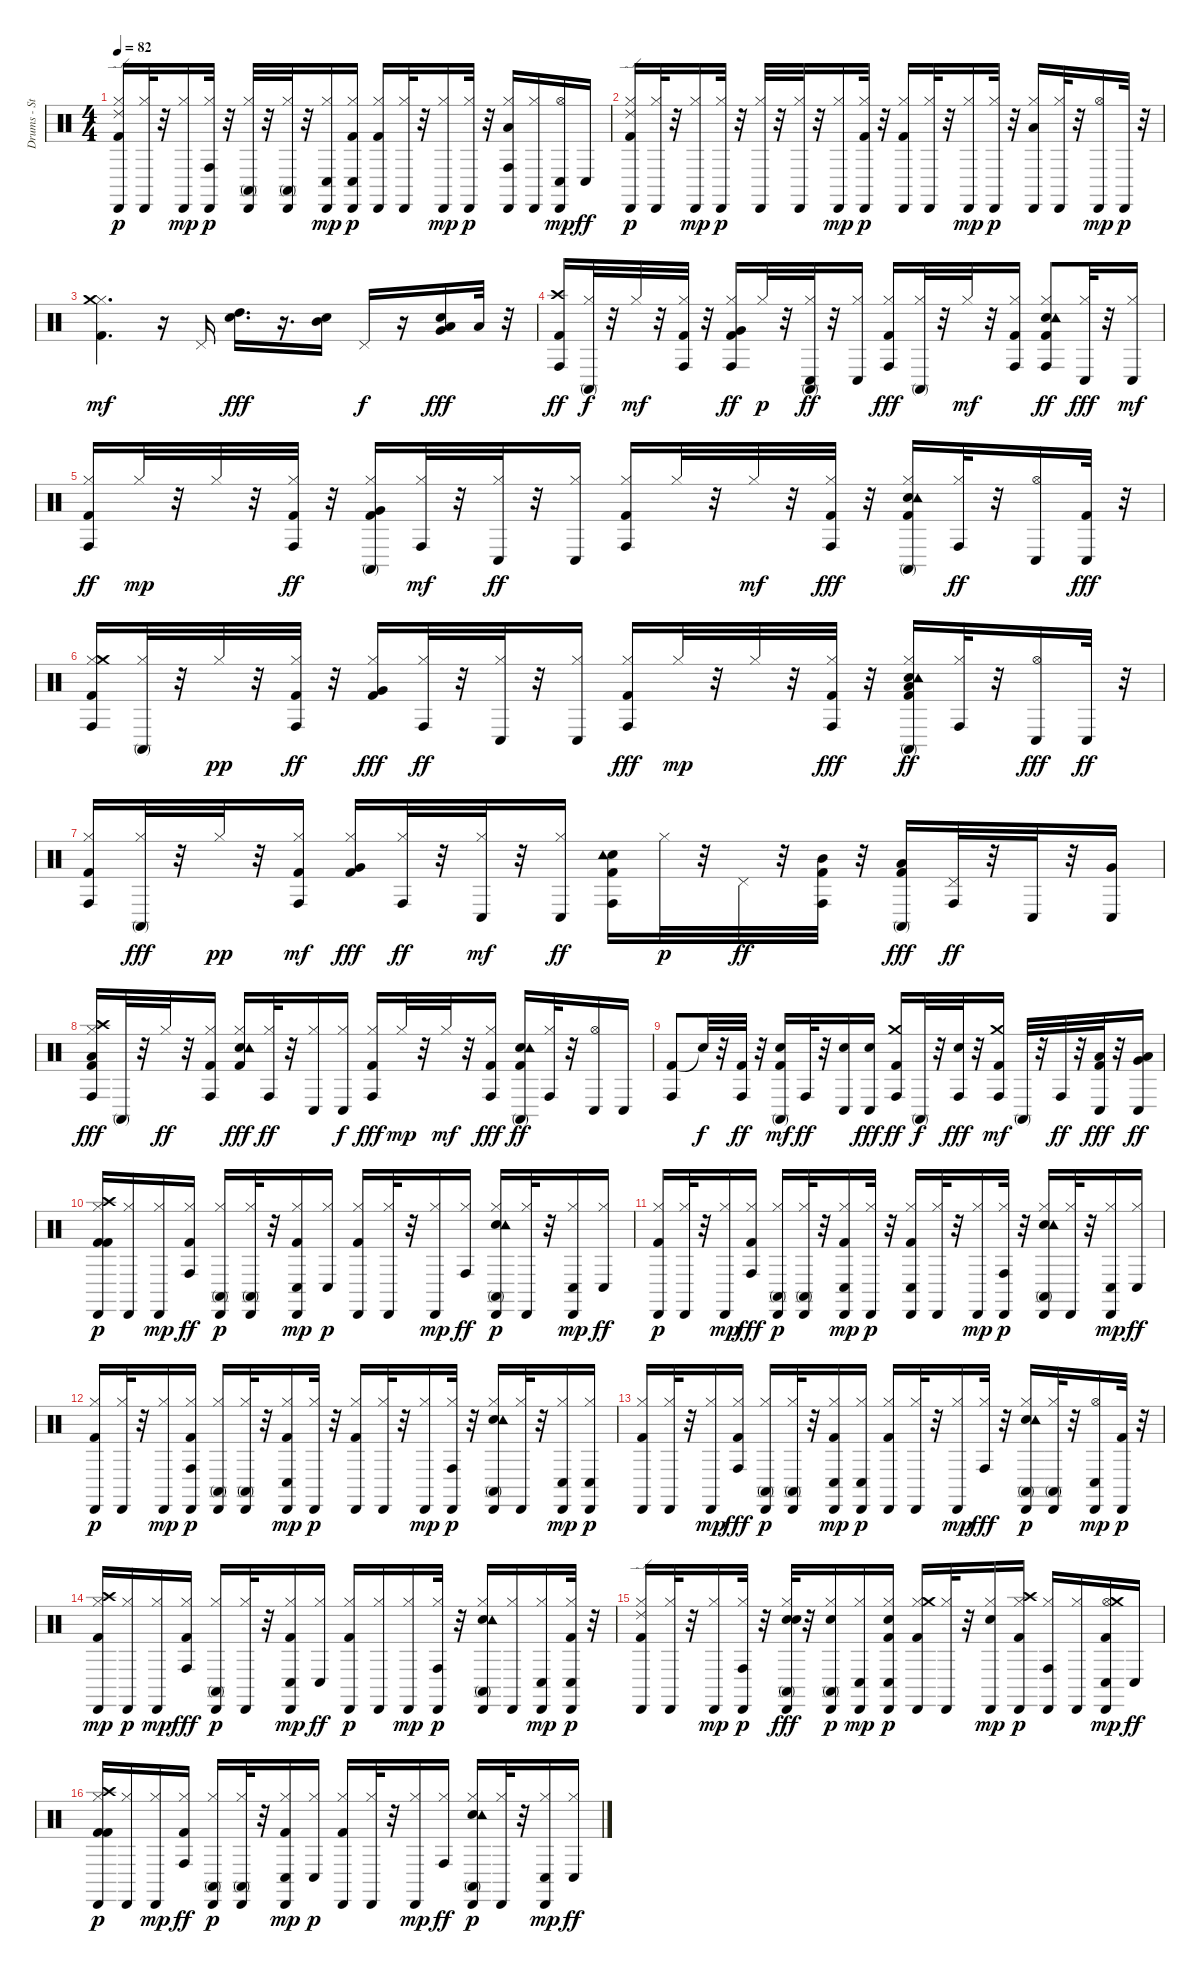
\track ("Drums - Standard" "Drums - St") {instrument percussion}
\staff {score}
\articulation defaults
\ts (4 4)
\tempo 82
\clef neutral
\ks c
("Kick (hit) 2" "Hi-Hat (closed)" "Ride (edge) 2" "Cabasa (hit)").16{dy p} ("Hi-Hat (closed)" "Cabasa (hit)").32 r.32 ("Hi-Hat (closed)" "Cabasa (hit)").16{dy mp} ("Hi-Hat (closed)" "Conga high (hit)" "Cabasa (hit)").32{dy p} r.32 ("Hi-Hat (closed)" "Conga high (mute)" "Cabasa (hit)").32 r.32 ("Hi-Hat (closed)" "Conga high (mute)" "Cabasa (hit)").32 r.32 ("Hi-Hat (closed)" "Conga low (hit)" "Cabasa (hit)").16{dy mp} ("Kick (hit) 2" "Hi-Hat (closed)" "Conga low (hit)" "Cabasa (hit)").16{dy p} ("Kick (hit) 2" "Hi-Hat (closed)" "Cabasa (hit)").16 ("Hi-Hat (closed)" "Cabasa (hit)").32 r.32 ("Hi-Hat (closed)" "Cabasa (hit)").16{dy mp} ("Hi-Hat (closed)" "Cabasa (hit)").32{dy p} r.32 ("Hi-Hat (closed)" "Low Tom (hit)" "Conga high (hit)" "Cabasa (hit)").16 ("Hi-Hat (closed)" "Cabasa (hit)").16 ("Hi-Hat (open)" "Conga low (hit)" "Cabasa (hit)").16{dy mp} "Conga low (hit)".16{dy ff} |
("Kick (hit) 2" "Hi-Hat (closed)" "Ride (edge) 2" "Cabasa (hit)").16{dy p} ("Hi-Hat (closed)" "Cabasa (hit)").32 r.32 ("Hi-Hat (closed)" "Cabasa (hit)").16{dy mp} ("Hi-Hat (closed)" "Cabasa (hit)").32{dy p} r.32 ("Hi-Hat (closed)" "Cabasa (hit)").32 r.32 ("Hi-Hat (closed)" "Cabasa (hit)").32 r.32 ("Hi-Hat (closed)" "Cabasa (hit)").16{dy mp} ("Kick (hit) 2" "Hi-Hat (closed)" "Cabasa (hit)").32{dy p} r.32 ("Kick (hit) 2" "Hi-Hat (closed)" "Cabasa (hit)").16 ("Hi-Hat (closed)" "Cabasa (hit)").32 r.32 ("Hi-Hat (closed)" "Cabasa (hit)").16{dy mp} ("Hi-Hat (closed)" "Cabasa (hit)").32{dy p} r.32 ("Hi-Hat (closed)" "Low Tom (hit)" "Cabasa (hit)").16 ("Hi-Hat (closed)" "Cabasa (hit)").32 r.32 ("Hi-Hat (open)" "Cabasa (hit)").16{dy mp} "Cabasa (hit)".32{dy p} r.32 |
("Kick (hit) 2" "Hi-Hat (closed)" "Crash medium (hit)").4{d dy mf} r.16 "Pedal Hi-Hat (hit)".16 ("Electric Snare (hit)" "High Tom (hit)").16{d dy fff} r.16{d} ("Electric Snare (hit)" "Mid Tom (hit)").16 "Pedal Hi-Hat (hit)".16{dy f} r.16 ("Electric Snare (hit)" "Very Low Tom (hit)" "Low Floor Tom (hit)").16{dy fff} "Low Floor Tom (hit)".32 r.32 |
("Kick (hit) 2" "Crash high (hit)" "Conga high (hit)").16{dy ff} ("Hi-Hat (closed)" "Conga high (mute)").32{dy f} r.32 "Hi-Hat (closed)".32{dy mf} r.32 ("Kick (hit) 2" "Hi-Hat (closed)" "Conga high (hit)").32 r.32 ("Kick (hit) 2" "Hi-Hat (closed)" "Very Low Tom (hit)" "Conga high (hit)").16{dy ff} "Hi-Hat (closed)".32{dy p} r.32 ("Hi-Hat (closed)" "Conga high (mute)" "Conga low (hit)").32{dy ff} r.32 ("Hi-Hat (closed)" "Conga low (hit)").16 ("Kick (hit) 2" "Hi-Hat (closed)" "Conga high (hit)").16{dy fff} ("Hi-Hat (closed)" "Conga high (mute)").32 r.32 "Hi-Hat (closed)".32{dy mf} r.32 ("Kick (hit) 2" "Hi-Hat (closed)" "Conga high (hit)").16 ("Kick (hit) 2" "Electric Snare (hit)" "Hi-Hat (closed)" "Tambourine (hit)" "Conga high (hit)").8{dy ff} ("Hi-Hat (closed)" "Conga low (hit)").32{dy fff} r.32 ("Hi-Hat (closed)" "Conga low (hit)").16{dy mf} |
("Kick (hit) 2" "Hi-Hat (closed)" "Conga high (hit)").16{dy ff} "Hi-Hat (closed)".32{dy mp} r.32 "Hi-Hat (closed)".32 r.32 ("Kick (hit) 2" "Hi-Hat (closed)" "Conga high (hit)").32{dy ff} r.32 ("Kick (hit) 2" "Hi-Hat (closed)" "Very Low Tom (hit)" "Conga high (mute)").16 ("Hi-Hat (closed)" "Conga high (hit)").32{dy mf} r.32 ("Hi-Hat (closed)" "Conga low (hit)").32{dy ff} r.32 ("Hi-Hat (closed)" "Conga low (hit)").16 ("Kick (hit) 2" "Hi-Hat (closed)" "Conga high (hit)").16 "Hi-Hat (closed)".32 r.32 "Hi-Hat (closed)".32{dy mf} r.32 ("Kick (hit) 2" "Hi-Hat (closed)" "Conga high (hit)").32{dy fff} r.32 ("Kick (hit) 2" "Electric Snare (hit)" "Hi-Hat (closed)" "Tambourine (hit)" "Conga high (mute)").16 ("Hi-Hat (closed)" "Conga high (hit)").32{dy ff} r.32 ("Hi-Hat (open)" "Conga low (hit)").16 ("Kick (hit) 2" "Conga low (hit)").32{dy fff} r.32 |
("Kick (hit) 2" "Hi-Hat (closed)" "Crash medium (hit)" "Conga high (hit)").16 ("Hi-Hat (closed)" "Conga high (mute)").32 r.32 "Hi-Hat (closed)".32{dy pp} r.32 ("Kick (hit) 2" "Hi-Hat (closed)" "Conga high (hit)").32{dy ff} r.32 ("Kick (hit) 2" "Hi-Hat (closed)" "Very Low Tom (hit)").16{dy fff} ("Hi-Hat (closed)" "Conga high (hit)").32{dy ff} r.32 ("Hi-Hat (closed)" "Conga low (hit)").32 r.32 ("Hi-Hat (closed)" "Conga low (hit)").16 ("Kick (hit) 2" "Hi-Hat (closed)" "Conga high (hit)").16{dy fff} "Hi-Hat (closed)".32{dy mp} r.32 "Hi-Hat (closed)".32 r.32 ("Kick (hit) 2" "Hi-Hat (closed)" "Conga high (hit)").32{dy fff} r.32 ("Kick (hit) 2" "Electric Snare (hit)" "Low Floor Tom (hit)" "Hi-Hat (closed)" "Tambourine (hit)" "Conga high (mute)").16{dy ff} ("Hi-Hat (closed)" "Conga high (hit)").32 r.32 ("Hi-Hat (open)" "Conga low (hit)").16{dy fff} "Conga low (hit)".32{dy ff} r.32 |
("Kick (hit) 2" "Hi-Hat (closed)" "Conga high (hit)").16 ("Hi-Hat (closed)" "Conga high (mute)").32{dy fff} r.32 "Hi-Hat (closed)".32{dy pp} r.32 ("Kick (hit) 2" "Hi-Hat (closed)" "Conga high (hit)").16{dy mf} ("Kick (hit) 2" "Hi-Hat (closed)" "Very Low Tom (hit)").16{dy fff} ("Hi-Hat (closed)" "Conga high (hit)").32{dy ff} r.32 ("Hi-Hat (closed)" "Conga low (hit)").32{dy mf} r.32 ("Hi-Hat (closed)" "Conga low (hit)").16{dy ff} ("Kick (hit) 2" "Electric Snare (hit)" "Tambourine (hit)" "Conga high (hit)").16 "Hi-Hat (closed)".32{dy p} r.32 "Pedal Hi-Hat (hit)".32{dy ff} r.32 ("Kick (hit) 2" "Mid Tom (hit)" "Conga high (hit)").32 r.32 ("Kick (hit) 2" "Low Tom (hit)" "Conga high (mute)").16{dy fff} ("Pedal Hi-Hat (hit)" "Conga high (hit)").32{dy ff} r.32 "Conga low (hit)".32 r.32 ("Very Low Tom (hit)" "Conga low (hit)").16 |
("Kick (hit) 2" "Low Floor Tom (hit)" "Hi-Hat (closed)" "Crash high (hit)" "Conga high (hit)").16{dy fff} "Conga high (mute)".32 r.32 "Hi-Hat (closed)".32{dy ff} r.32 ("Kick (hit) 2" "Hi-Hat (closed)" "Conga high (hit)").16 ("Kick (hit) 2" "Electric Snare (hit)" "Hi-Hat (closed)" "Tambourine (hit)").16{dy fff} ("Hi-Hat (closed)" "Conga high (hit)").32{dy ff} r.32 ("Hi-Hat (closed)" "Conga low (hit)").16 ("Hi-Hat (closed)" "Conga low (hit)").16{dy f} ("Kick (hit) 2" "Hi-Hat (closed)" "Conga high (hit)").16{dy fff} "Hi-Hat (closed)".32{dy mp} r.32 "Hi-Hat (closed)".32{dy mf} r.32 ("Kick (hit) 2" "Hi-Hat (closed)" "Conga high (hit)").16{dy fff} ("Kick (hit) 2" "Electric Snare (hit)" "Tambourine (hit)" "Conga high (mute)").16{dy ff} ("Hi-Hat (closed)" "Conga high (hit)").32 r.32 ("Hi-Hat (open)" "Conga low (hit)").16 "Conga low (hit)".16 |
("Kick (hit) 2" "Conga high (hit)").8 "Snare (hit)"{t}.32{dy f} r.32 ("Kick (hit) 2" "Conga high (hit)").32{dy ff} r.32 ("Kick (hit) 2" "Electric Snare (hit)" "Conga high (mute)").16{dy mf} "Conga high (hit)".32{dy ff} r.32 ("Electric Snare (hit)" "Conga low (hit)").16 ("Electric Snare (hit)" "Conga low (hit)").16{dy fff} ("Kick (hit) 2" "Crash medium (hit)" "Conga high (hit)").16{dy ff} "Conga high (mute)".32{dy f} r.32 ("Electric Snare (hit)" "Conga high (hit)").32{dy fff} r.32 ("Kick (hit) 2" "Crash medium (hit)" "Conga high (hit)").16{dy mf} "Conga high (mute)".32 r.32 "Conga high (hit)".32{dy ff} r.32 ("Kick (hit) 2" "Low Tom (hit)" "Conga low (hit)").32{dy fff} r.32 ("Very Low Tom (hit)" "Low Tom (hit)" "Conga low (hit)").16{dy ff} |
("Kick (hit) 2" "Kick (hit) 2" "Hi-Hat (closed)" "Crash high (hit)" "Cabasa (hit)").16{dy p} ("Hi-Hat (closed)" "Cabasa (hit)").16 ("Hi-Hat (closed)" "Cabasa (hit)").16{dy mp} ("Kick (hit) 2" "Hi-Hat (closed)" "Conga high (hit)").16{dy ff} ("Hi-Hat (closed)" "Conga high (mute)" "Cabasa (hit)").16{dy p} ("Hi-Hat (closed)" "Conga high (mute)" "Cabasa (hit)").32 r.32 ("Kick (hit) 2" "Hi-Hat (closed)" "Conga low (hit)" "Cabasa (hit)").16{dy mp} ("Hi-Hat (closed)" "Conga low (hit)").16{dy p} ("Kick (hit) 2" "Hi-Hat (closed)" "Cabasa (hit)").16 ("Hi-Hat (closed)" "Cabasa (hit)").32 r.32 ("Hi-Hat (closed)" "Cabasa (hit)").16{dy mp} ("Hi-Hat (closed)" "Conga high (hit)").16{dy ff} ("Electric Snare (hit)" "Hi-Hat (closed)" "Tambourine (hit)" "Conga high (mute)" "Cabasa (hit)").16{dy p} ("Hi-Hat (closed)" "Cabasa (hit)").32 r.32 ("Hi-Hat (closed)" "Conga low (hit)" "Cabasa (hit)").16{dy mp} ("Hi-Hat (closed)" "Conga low (hit)").16{dy ff} |
("Kick (hit) 2" "Hi-Hat (closed)" "Cabasa (hit)").16{dy p} ("Hi-Hat (closed)" "Cabasa (hit)").32 r.32 ("Hi-Hat (closed)" "Cabasa (hit)").16{dy mp} ("Kick (hit) 2" "Hi-Hat (closed)" "Conga high (hit)").16{dy fff} ("Hi-Hat (closed)" "Conga high (mute)" "Cabasa (hit)").16{dy p} ("Hi-Hat (closed)" "Conga high (mute)" "Cabasa (hit)").32 r.32 ("Kick (hit) 2" "Hi-Hat (closed)" "Conga low (hit)" "Cabasa (hit)").16{dy mp} ("Hi-Hat (closed)" "Cabasa (hit)").32{dy p} r.32 ("Kick (hit) 2" "Hi-Hat (closed)" "Conga low (hit)" "Cabasa (hit)").16 ("Hi-Hat (closed)" "Cabasa (hit)").32 r.32 ("Hi-Hat (closed)" "Cabasa (hit)").16{dy mp} ("Hi-Hat (closed)" "Conga high (hit)" "Cabasa (hit)").32{dy p} r.32 ("Electric Snare (hit)" "Hi-Hat (closed)" "Tambourine (hit)" "Conga high (mute)" "Cabasa (hit)").16 ("Hi-Hat (closed)" "Cabasa (hit)").32 r.32 ("Hi-Hat (closed)" "Conga low (hit)" "Cabasa (hit)").16{dy mp} ("Hi-Hat (closed)" "Conga low (hit)").16{dy ff} |
("Kick (hit) 2" "Hi-Hat (closed)" "Cabasa (hit)").16{dy p} ("Hi-Hat (closed)" "Cabasa (hit)").32 r.32 ("Hi-Hat (closed)" "Cabasa (hit)").16{dy mp} ("Kick (hit) 2" "Hi-Hat (closed)" "Conga high (hit)" "Cabasa (hit)").16{dy p} ("Hi-Hat (closed)" "Conga high (mute)" "Cabasa (hit)").16 ("Hi-Hat (closed)" "Conga high (mute)" "Cabasa (hit)").32 r.32 ("Kick (hit) 2" "Hi-Hat (closed)" "Conga low (hit)" "Cabasa (hit)").16{dy mp} ("Hi-Hat (closed)" "Cabasa (hit)").32{dy p} r.32 ("Kick (hit) 2" "Hi-Hat (closed)" "Cabasa (hit)").16 ("Hi-Hat (closed)" "Cabasa (hit)").32 r.32 ("Hi-Hat (closed)" "Cabasa (hit)").16{dy mp} ("Hi-Hat (closed)" "Conga high (hit)" "Cabasa (hit)").32{dy p} r.32 ("Electric Snare (hit)" "Hi-Hat (closed)" "Tambourine (hit)" "Conga high (mute)" "Cabasa (hit)").16 ("Hi-Hat (closed)" "Cabasa (hit)").32 r.32 ("Hi-Hat (closed)" "Conga low (hit)" "Cabasa (hit)").16{dy mp} ("Hi-Hat (closed)" "Conga low (hit)" "Cabasa (hit)").16{dy p} |
("Kick (hit) 2" "Hi-Hat (closed)" "Cabasa (hit)").16 ("Hi-Hat (closed)" "Cabasa (hit)").32 r.32 ("Hi-Hat (closed)" "Cabasa (hit)").16{dy mp} ("Kick (hit) 2" "Hi-Hat (closed)" "Conga high (hit)").16{dy fff} ("Hi-Hat (closed)" "Conga high (mute)" "Cabasa (hit)").16{dy p} ("Hi-Hat (closed)" "Conga high (mute)" "Cabasa (hit)").32 r.32 ("Kick (hit) 2" "Hi-Hat (closed)" "Conga low (hit)" "Cabasa (hit)").16{dy mp} ("Hi-Hat (closed)" "Conga low (hit)" "Cabasa (hit)").16{dy p} ("Kick (hit) 2" "Hi-Hat (closed)" "Cabasa (hit)").16 ("Hi-Hat (closed)" "Cabasa (hit)").32 r.32 ("Hi-Hat (closed)" "Cabasa (hit)").16{dy mp} ("Hi-Hat (closed)" "Conga high (hit)").32{dy fff} r.32 ("Electric Snare (hit)" "Hi-Hat (closed)" "Tambourine (hit)" "Conga high (mute)" "Cabasa (hit)").16{dy p} ("Hi-Hat (closed)" "Conga high (mute)" "Cabasa (hit)").32 r.32 ("Hi-Hat (open)" "Conga low (hit)" "Cabasa (hit)").16{dy mp} ("Kick (hit) 2" "Cabasa (hit)").32{dy p} r.32 |
("Kick (hit) 2" "Hi-Hat (closed)" "Crash high (hit)" "Cabasa (hit)").16{dy mp} ("Hi-Hat (closed)" "Cabasa (hit)").16{dy p} ("Hi-Hat (closed)" "Cabasa (hit)").16{dy mp} ("Kick (hit) 2" "Hi-Hat (closed)" "Conga high (hit)").16{dy fff} ("Hi-Hat (closed)" "Conga high (mute)" "Cabasa (hit)").16{dy p} ("Hi-Hat (closed)" "Cabasa (hit)").32 r.32 ("Kick (hit) 2" "Hi-Hat (closed)" "Conga low (hit)" "Cabasa (hit)").16{dy mp} ("Hi-Hat (closed)" "Conga low (hit)").16{dy ff} ("Kick (hit) 2" "Hi-Hat (closed)" "Cabasa (hit)").16{dy p} ("Hi-Hat (closed)" "Cabasa (hit)").16 ("Hi-Hat (closed)" "Cabasa (hit)").16{dy mp} ("Hi-Hat (closed)" "Conga high (hit)" "Cabasa (hit)").32{dy p} r.32 ("Electric Snare (hit)" "Hi-Hat (closed)" "Tambourine (hit)" "Conga high (mute)" "Cabasa (hit)").16 ("Hi-Hat (closed)" "Cabasa (hit)").16 ("Hi-Hat (closed)" "Conga low (hit)" "Cabasa (hit)").16{dy mp} ("Kick (hit) 2" "Hi-Hat (closed)" "Conga low (hit)" "Cabasa (hit)").32{dy p} r.32 |
("Kick (hit) 2" "Hi-Hat (closed)" "Ride (edge) 2" "Cabasa (hit)").16 ("Hi-Hat (closed)" "Cabasa (hit)").32 r.32 ("Hi-Hat (closed)" "Cabasa (hit)").16{dy mp} ("Hi-Hat (closed)" "Conga high (hit)" "Cabasa (hit)").32{dy p} r.32 ("Snare (hit) 2" "Hi-Hat (closed)" "Conga high (mute)" "Cabasa (hit)" "Electric Snare (hit)").32{dy fff} r.32 ("Electric Snare (hit)" "Hi-Hat (closed)" "Conga high (mute)" "Cabasa (hit)").16{dy p} ("Hi-Hat (closed)" "Conga low (hit)" "Cabasa (hit)").16{dy mp} ("Kick (hit) 2" "Electric Snare (hit)" "Hi-Hat (closed)" "Conga low (hit)" "Cabasa (hit)").16{dy p} ("Kick (hit) 2" "Hi-Hat (closed)" "Crash medium (hit)" "Cabasa (hit)").16 ("Hi-Hat (closed)" "Cabasa (hit)").32 r.32 ("Electric Snare (hit)" "Hi-Hat (closed)" "Cabasa (hit)").16{dy mp} ("Kick (hit) 2" "Hi-Hat (closed)" "Crash high (hit)" "Cabasa (hit)").16{dy p} ("Hi-Hat (closed)" "Conga high (hit)" "Cabasa (hit)").16 ("Hi-Hat (closed)" "Cabasa (hit)").16 ("Kick (hit) 2" "Hi-Hat (open)" "Crash medium (hit)" "Conga low (hit)" "Cabasa (hit)").16{dy mp} "Conga low (hit)".16{dy ff} |
("Kick (hit) 2" "Kick (hit) 2" "Hi-Hat (closed)" "Crash high (hit)" "Cabasa (hit)").16{dy p} ("Hi-Hat (closed)" "Cabasa (hit)").16 ("Hi-Hat (closed)" "Cabasa (hit)").16{dy mp} ("Kick (hit) 2" "Hi-Hat (closed)" "Conga high (hit)").16{dy ff} ("Hi-Hat (closed)" "Conga high (mute)" "Cabasa (hit)").16{dy p} ("Hi-Hat (closed)" "Conga high (mute)" "Cabasa (hit)").32 r.32 ("Kick (hit) 2" "Hi-Hat (closed)" "Conga low (hit)" "Cabasa (hit)").16{dy mp} ("Hi-Hat (closed)" "Conga low (hit)").16{dy p} ("Kick (hit) 2" "Hi-Hat (closed)" "Cabasa (hit)").16 ("Hi-Hat (closed)" "Cabasa (hit)").32 r.32 ("Hi-Hat (closed)" "Cabasa (hit)").16{dy mp} ("Hi-Hat (closed)" "Conga high (hit)").16{dy ff} ("Electric Snare (hit)" "Hi-Hat (closed)" "Tambourine (hit)" "Conga high (mute)" "Cabasa (hit)").16{dy p} ("Hi-Hat (closed)" "Cabasa (hit)").32 r.32 ("Hi-Hat (closed)" "Conga low (hit)" "Cabasa (hit)").16{dy mp} ("Hi-Hat (closed)" "Conga low (hit)").16{dy ff}
